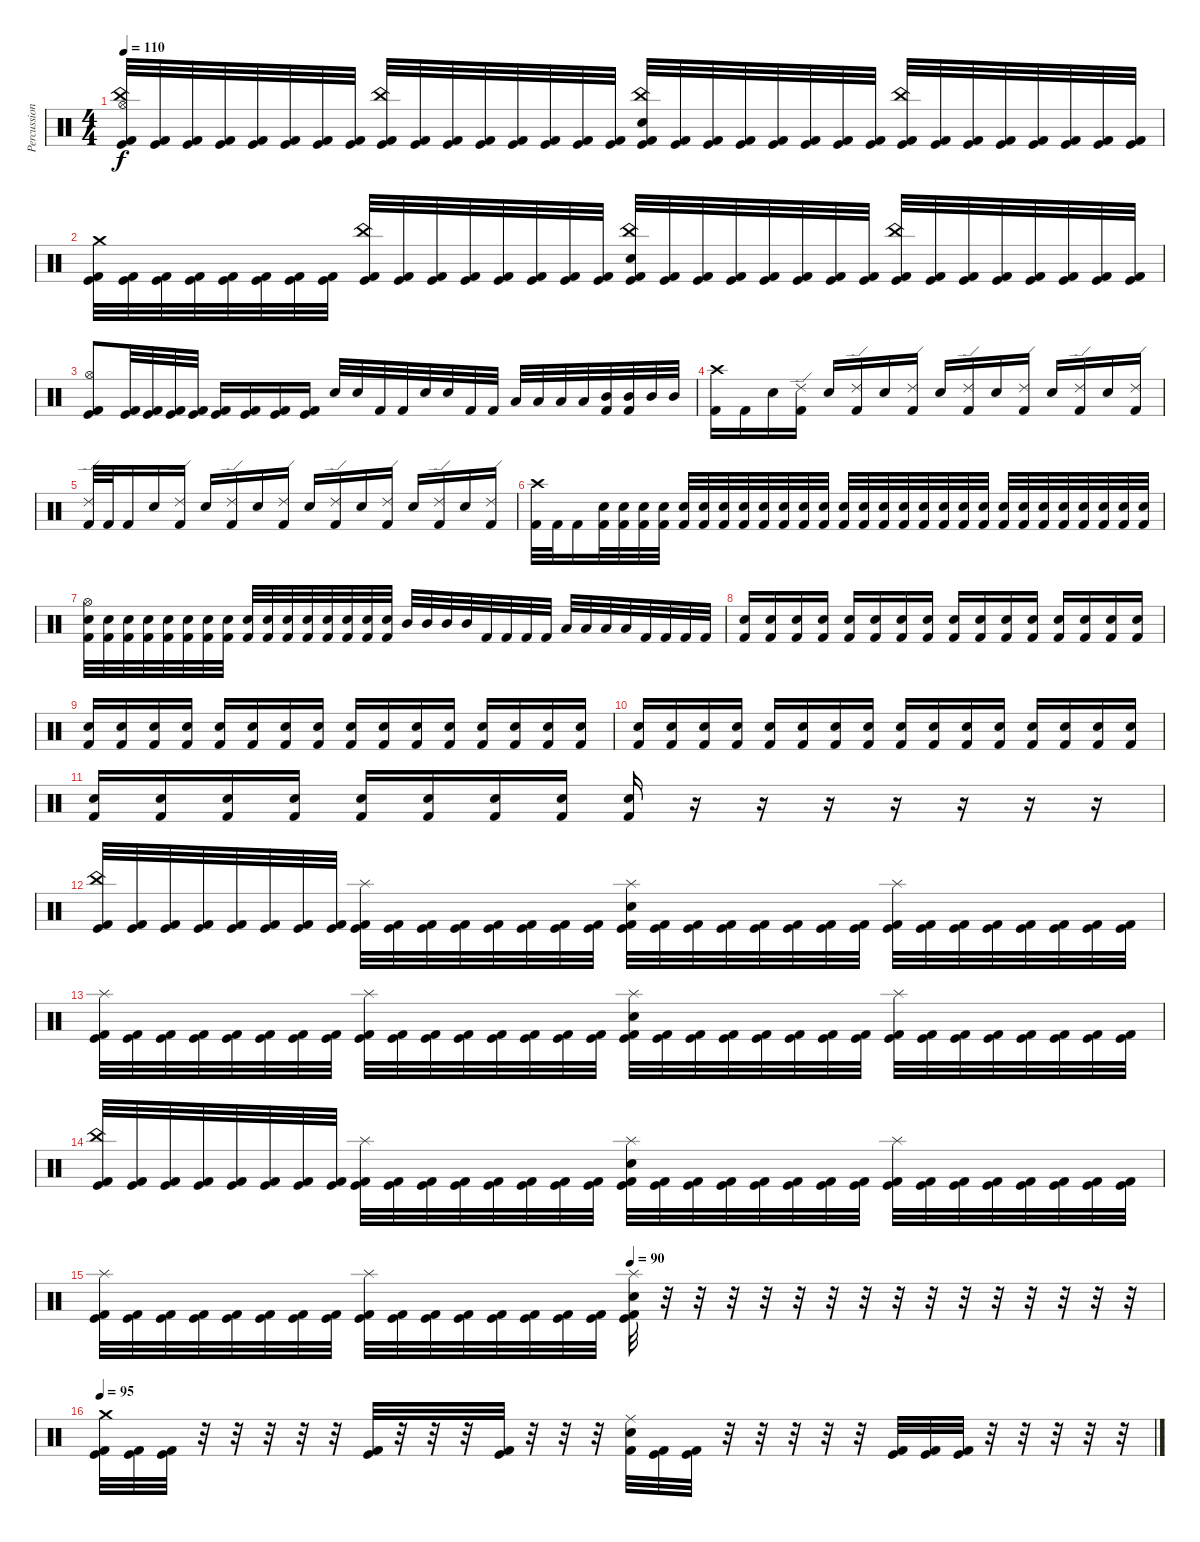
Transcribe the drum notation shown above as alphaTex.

\track ("Percussion" "Percussion") {instrument percussion}
\staff {score}
\articulation defaults
\ts (4 4)
\tempo 110
\clef neutral
\ks c
("Kick (hit)" "Hi-Hat (open)" "China (hit)" "Kick (hit) 2").32{dy f} ("Kick (hit)" "Kick (hit) 2").32 ("Kick (hit)" "Kick (hit) 2").32 ("Kick (hit)" "Kick (hit) 2").32 ("Kick (hit)" "Kick (hit) 2").32 ("Kick (hit)" "Kick (hit) 2").32 ("Kick (hit)" "Kick (hit) 2").32 ("Kick (hit)" "Kick (hit) 2").32 ("Kick (hit)" "China (hit)" "Kick (hit) 2").32 ("Kick (hit)" "Kick (hit) 2").32 ("Kick (hit)" "Kick (hit) 2").32 ("Kick (hit)" "Kick (hit) 2").32 ("Kick (hit)" "Kick (hit) 2").32 ("Kick (hit)" "Kick (hit) 2").32 ("Kick (hit)" "Kick (hit) 2").32 ("Kick (hit)" "Kick (hit) 2").32 ("Kick (hit)" "China (hit)" "Electric Snare (hit)" "Kick (hit) 2").32 ("Kick (hit)" "Kick (hit) 2").32 ("Kick (hit)" "Kick (hit) 2").32 ("Kick (hit)" "Kick (hit) 2").32 ("Kick (hit)" "Kick (hit) 2").32 ("Kick (hit)" "Kick (hit) 2").32 ("Kick (hit)" "Kick (hit) 2").32 ("Kick (hit)" "Kick (hit) 2").32 ("Kick (hit)" "China (hit)" "Kick (hit) 2").32 ("Kick (hit)" "Kick (hit) 2").32 ("Kick (hit)" "Kick (hit) 2").32 ("Kick (hit)" "Kick (hit) 2").32 ("Kick (hit)" "Kick (hit) 2").32 ("Kick (hit)" "Kick (hit) 2").32 ("Kick (hit)" "Kick (hit) 2").32 ("Kick (hit)" "Kick (hit) 2").32 |
("Kick (hit)" "Crash medium (hit)" "Kick (hit) 2").32 ("Kick (hit)" "Kick (hit) 2").32 ("Kick (hit)" "Kick (hit) 2").32 ("Kick (hit)" "Kick (hit) 2").32 ("Kick (hit)" "Kick (hit) 2").32 ("Kick (hit)" "Kick (hit) 2").32 ("Kick (hit)" "Kick (hit) 2").32 ("Kick (hit)" "Kick (hit) 2").32 ("Kick (hit)" "China (hit)" "Kick (hit) 2").32 ("Kick (hit)" "Kick (hit) 2").32 ("Kick (hit)" "Kick (hit) 2").32 ("Kick (hit)" "Kick (hit) 2").32 ("Kick (hit)" "Kick (hit) 2").32 ("Kick (hit)" "Kick (hit) 2").32 ("Kick (hit)" "Kick (hit) 2").32 ("Kick (hit)" "Kick (hit) 2").32 ("Kick (hit)" "China (hit)" "Electric Snare (hit)" "Kick (hit) 2").32 ("Kick (hit)" "Kick (hit) 2").32 ("Kick (hit)" "Kick (hit) 2").32 ("Kick (hit)" "Kick (hit) 2").32 ("Kick (hit)" "Kick (hit) 2").32 ("Kick (hit)" "Kick (hit) 2").32 ("Kick (hit)" "Kick (hit) 2").32 ("Kick (hit)" "Kick (hit) 2").32 ("Kick (hit)" "China (hit)" "Kick (hit) 2").32 ("Kick (hit)" "Kick (hit) 2").32 ("Kick (hit)" "Kick (hit) 2").32 ("Kick (hit)" "Kick (hit) 2").32 ("Kick (hit)" "Kick (hit) 2").32 ("Kick (hit)" "Kick (hit) 2").32 ("Kick (hit)" "Kick (hit) 2").32 ("Kick (hit)" "Kick (hit) 2").32 |
("Kick (hit)" "Hi-Hat (open)" "Kick (hit) 2").8 ("Kick (hit)" "Kick (hit) 2").32 ("Kick (hit)" "Kick (hit) 2").32 ("Kick (hit)" "Kick (hit) 2").32 ("Kick (hit)" "Kick (hit) 2").32 ("Kick (hit)" "Kick (hit) 2").16 ("Kick (hit)" "Kick (hit) 2").16 ("Kick (hit)" "Kick (hit) 2").16 ("Kick (hit)" "Kick (hit) 2").16 "Electric Snare (hit)".32 "Electric Snare (hit)".32 "Kick (hit) 2".32 "Kick (hit) 2".32 "Electric Snare (hit)".32 "Electric Snare (hit)".32 "Kick (hit) 2".32 "Kick (hit) 2".32 "Low Tom (hit)".32 "Low Tom (hit)".32 "Low Tom (hit)".32 "Low Tom (hit)".32 ("Mid Tom (hit)" "Kick (hit) 2").32 ("Mid Tom (hit)" "Kick (hit) 2").32 "Mid Tom (hit)".32 "Mid Tom (hit)".32 |
("Crash high (hit)" "Kick (hit) 2").16 "Kick (hit) 2".16 "Electric Snare (hit)".16 ("Ride (edge) 2" "Kick (hit) 2").16 "Electric Snare (hit)".16 ("Ride (edge) 2" "Kick (hit) 2").16 "Electric Snare (hit)".16 ("Ride (edge) 2" "Kick (hit) 2").16 "Electric Snare (hit)".16 ("Ride (edge) 2" "Kick (hit) 2").16 "Electric Snare (hit)".16 ("Ride (edge) 2" "Kick (hit) 2").16 "Electric Snare (hit)".16 ("Ride (edge) 2" "Kick (hit) 2").16 "Electric Snare (hit)".16 ("Ride (edge) 2" "Kick (hit) 2").16 |
("Ride (edge) 2" "Kick (hit) 2").32 "Kick (hit) 2".32 "Kick (hit) 2".16 "Electric Snare (hit)".16 ("Ride (edge) 2" "Kick (hit) 2").16 "Electric Snare (hit)".16 ("Ride (edge) 2" "Kick (hit) 2").16 "Electric Snare (hit)".16 ("Ride (edge) 2" "Kick (hit) 2").16 "Electric Snare (hit)".16 ("Ride (edge) 2" "Kick (hit) 2").16 "Electric Snare (hit)".16 ("Ride (edge) 2" "Kick (hit) 2").16 "Electric Snare (hit)".16 ("Ride (edge) 2" "Kick (hit) 2").16 "Electric Snare (hit)".16 ("Ride (edge) 2" "Kick (hit) 2").16 |
("Crash high (hit)" "Kick (hit) 2").32 "Kick (hit) 2".32 "Kick (hit) 2".16 ("Electric Snare (hit)" "Kick (hit) 2").32 ("Electric Snare (hit)" "Kick (hit) 2").32 ("Electric Snare (hit)" "Kick (hit) 2").32 ("Electric Snare (hit)" "Kick (hit) 2").32 ("Electric Snare (hit)" "Kick (hit) 2").32 ("Electric Snare (hit)" "Kick (hit) 2").32 ("Electric Snare (hit)" "Kick (hit) 2").32 ("Electric Snare (hit)" "Kick (hit) 2").32 ("Electric Snare (hit)" "Kick (hit) 2").32 ("Electric Snare (hit)" "Kick (hit) 2").32 ("Electric Snare (hit)" "Kick (hit) 2").32 ("Electric Snare (hit)" "Kick (hit) 2").32 ("Electric Snare (hit)" "Kick (hit) 2").32 ("Electric Snare (hit)" "Kick (hit) 2").32 ("Electric Snare (hit)" "Kick (hit) 2").32 ("Electric Snare (hit)" "Kick (hit) 2").32 ("Electric Snare (hit)" "Kick (hit) 2").32 ("Electric Snare (hit)" "Kick (hit) 2").32 ("Electric Snare (hit)" "Kick (hit) 2").32 ("Electric Snare (hit)" "Kick (hit) 2").32 ("Electric Snare (hit)" "Kick (hit) 2").32 ("Electric Snare (hit)" "Kick (hit) 2").32 ("Electric Snare (hit)" "Kick (hit) 2").32 ("Electric Snare (hit)" "Kick (hit) 2").32 ("Electric Snare (hit)" "Kick (hit) 2").32 ("Electric Snare (hit)" "Kick (hit) 2").32 ("Electric Snare (hit)" "Kick (hit) 2").32 ("Electric Snare (hit)" "Kick (hit) 2").32 |
("Hi-Hat (open)" "Electric Snare (hit)" "Kick (hit) 2").32 ("Electric Snare (hit)" "Kick (hit) 2").32 ("Electric Snare (hit)" "Kick (hit) 2").32 ("Electric Snare (hit)" "Kick (hit) 2").32 ("Electric Snare (hit)" "Kick (hit) 2").32 ("Electric Snare (hit)" "Kick (hit) 2").32 ("Electric Snare (hit)" "Kick (hit) 2").32 ("Electric Snare (hit)" "Kick (hit) 2").32 ("Electric Snare (hit)" "Kick (hit) 2").32 ("Electric Snare (hit)" "Kick (hit) 2").32 ("Electric Snare (hit)" "Kick (hit) 2").32 ("Electric Snare (hit)" "Kick (hit) 2").32 ("Electric Snare (hit)" "Kick (hit) 2").32 ("Electric Snare (hit)" "Kick (hit) 2").32 ("Electric Snare (hit)" "Kick (hit) 2").32 ("Electric Snare (hit)" "Kick (hit) 2").32 "Mid Tom (hit)".32 "Mid Tom (hit)".32 "Mid Tom (hit)".32 "Mid Tom (hit)".32 "Kick (hit) 2".32 "Kick (hit) 2".32 "Kick (hit) 2".32 "Kick (hit) 2".32 "Low Tom (hit)".32 "Low Tom (hit)".32 "Low Tom (hit)".32 "Low Tom (hit)".32 "Kick (hit) 2".32 "Kick (hit) 2".32 "Kick (hit) 2".32 "Kick (hit) 2".32 |
("Electric Snare (hit)" "Kick (hit) 2").16 ("Electric Snare (hit)" "Kick (hit) 2").16 ("Electric Snare (hit)" "Kick (hit) 2").16 ("Electric Snare (hit)" "Kick (hit) 2").16 ("Electric Snare (hit)" "Kick (hit) 2").16 ("Electric Snare (hit)" "Kick (hit) 2").16 ("Electric Snare (hit)" "Kick (hit) 2").16 ("Electric Snare (hit)" "Kick (hit) 2").16 ("Electric Snare (hit)" "Kick (hit) 2").16 ("Electric Snare (hit)" "Kick (hit) 2").16 ("Electric Snare (hit)" "Kick (hit) 2").16 ("Electric Snare (hit)" "Kick (hit) 2").16 ("Electric Snare (hit)" "Kick (hit) 2").16 ("Electric Snare (hit)" "Kick (hit) 2").16 ("Electric Snare (hit)" "Kick (hit) 2").16 ("Electric Snare (hit)" "Kick (hit) 2").16 |
("Electric Snare (hit)" "Kick (hit) 2").16 ("Electric Snare (hit)" "Kick (hit) 2").16 ("Electric Snare (hit)" "Kick (hit) 2").16 ("Electric Snare (hit)" "Kick (hit) 2").16 ("Electric Snare (hit)" "Kick (hit) 2").16 ("Electric Snare (hit)" "Kick (hit) 2").16 ("Electric Snare (hit)" "Kick (hit) 2").16 ("Electric Snare (hit)" "Kick (hit) 2").16 ("Electric Snare (hit)" "Kick (hit) 2").16 ("Electric Snare (hit)" "Kick (hit) 2").16 ("Electric Snare (hit)" "Kick (hit) 2").16 ("Electric Snare (hit)" "Kick (hit) 2").16 ("Electric Snare (hit)" "Kick (hit) 2").16 ("Electric Snare (hit)" "Kick (hit) 2").16 ("Electric Snare (hit)" "Kick (hit) 2").16 ("Electric Snare (hit)" "Kick (hit) 2").16 |
("Electric Snare (hit)" "Kick (hit) 2").16 ("Electric Snare (hit)" "Kick (hit) 2").16 ("Electric Snare (hit)" "Kick (hit) 2").16 ("Electric Snare (hit)" "Kick (hit) 2").16 ("Electric Snare (hit)" "Kick (hit) 2").16 ("Electric Snare (hit)" "Kick (hit) 2").16 ("Electric Snare (hit)" "Kick (hit) 2").16 ("Electric Snare (hit)" "Kick (hit) 2").16 ("Electric Snare (hit)" "Kick (hit) 2").16 ("Electric Snare (hit)" "Kick (hit) 2").16 ("Electric Snare (hit)" "Kick (hit) 2").16 ("Electric Snare (hit)" "Kick (hit) 2").16 ("Electric Snare (hit)" "Kick (hit) 2").16 ("Electric Snare (hit)" "Kick (hit) 2").16 ("Electric Snare (hit)" "Kick (hit) 2").16 ("Electric Snare (hit)" "Kick (hit) 2").16 |
("Electric Snare (hit)" "Kick (hit) 2").16 ("Electric Snare (hit)" "Kick (hit) 2").16 ("Electric Snare (hit)" "Kick (hit) 2").16 ("Electric Snare (hit)" "Kick (hit) 2").16 ("Electric Snare (hit)" "Kick (hit) 2").16 ("Electric Snare (hit)" "Kick (hit) 2").16 ("Electric Snare (hit)" "Kick (hit) 2").16 ("Electric Snare (hit)" "Kick (hit) 2").16 ("Electric Snare (hit)" "Kick (hit) 2").16 r.16 r.16 r.16 r.16 r.16 r.16 r.16 |
("China (hit)" "Kick (hit)" "Kick (hit) 2").32 ("Kick (hit)" "Kick (hit) 2").32 ("Kick (hit)" "Kick (hit) 2").32 ("Kick (hit)" "Kick (hit) 2").32 ("Kick (hit)" "Kick (hit) 2").32 ("Kick (hit)" "Kick (hit) 2").32 ("Kick (hit)" "Kick (hit) 2").32 ("Kick (hit)" "Kick (hit) 2").32 ("Splash (hit)" "Kick (hit)" "Kick (hit) 2").32 ("Kick (hit)" "Kick (hit) 2").32 ("Kick (hit)" "Kick (hit) 2").32 ("Kick (hit)" "Kick (hit) 2").32 ("Kick (hit)" "Kick (hit) 2").32 ("Kick (hit)" "Kick (hit) 2").32 ("Kick (hit)" "Kick (hit) 2").32 ("Kick (hit)" "Kick (hit) 2").32 ("Splash (hit)" "Electric Snare (hit)" "Kick (hit)" "Kick (hit) 2").32 ("Kick (hit)" "Kick (hit) 2").32 ("Kick (hit)" "Kick (hit) 2").32 ("Kick (hit)" "Kick (hit) 2").32 ("Kick (hit)" "Kick (hit) 2").32 ("Kick (hit)" "Kick (hit) 2").32 ("Kick (hit)" "Kick (hit) 2").32 ("Kick (hit)" "Kick (hit) 2").32 ("Splash (hit)" "Kick (hit)" "Kick (hit) 2").32 ("Kick (hit)" "Kick (hit) 2").32 ("Kick (hit)" "Kick (hit) 2").32 ("Kick (hit)" "Kick (hit) 2").32 ("Kick (hit)" "Kick (hit) 2").32 ("Kick (hit)" "Kick (hit) 2").32 ("Kick (hit)" "Kick (hit) 2").32 ("Kick (hit)" "Kick (hit) 2").32 |
("Splash (hit)" "Kick (hit)" "Kick (hit) 2").32 ("Kick (hit)" "Kick (hit) 2").32 ("Kick (hit)" "Kick (hit) 2").32 ("Kick (hit)" "Kick (hit) 2").32 ("Kick (hit)" "Kick (hit) 2").32 ("Kick (hit)" "Kick (hit) 2").32 ("Kick (hit)" "Kick (hit) 2").32 ("Kick (hit)" "Kick (hit) 2").32 ("Splash (hit)" "Kick (hit)" "Kick (hit) 2").32 ("Kick (hit)" "Kick (hit) 2").32 ("Kick (hit)" "Kick (hit) 2").32 ("Kick (hit)" "Kick (hit) 2").32 ("Kick (hit)" "Kick (hit) 2").32 ("Kick (hit)" "Kick (hit) 2").32 ("Kick (hit)" "Kick (hit) 2").32 ("Kick (hit)" "Kick (hit) 2").32 ("Splash (hit)" "Electric Snare (hit)" "Kick (hit)" "Kick (hit) 2").32 ("Kick (hit)" "Kick (hit) 2").32 ("Kick (hit)" "Kick (hit) 2").32 ("Kick (hit)" "Kick (hit) 2").32 ("Kick (hit)" "Kick (hit) 2").32 ("Kick (hit)" "Kick (hit) 2").32 ("Kick (hit)" "Kick (hit) 2").32 ("Kick (hit)" "Kick (hit) 2").32 ("Splash (hit)" "Kick (hit)" "Kick (hit) 2").32 ("Kick (hit)" "Kick (hit) 2").32 ("Kick (hit)" "Kick (hit) 2").32 ("Kick (hit)" "Kick (hit) 2").32 ("Kick (hit)" "Kick (hit) 2").32 ("Kick (hit)" "Kick (hit) 2").32 ("Kick (hit)" "Kick (hit) 2").32 ("Kick (hit)" "Kick (hit) 2").32 |
("China (hit)" "Kick (hit)" "Kick (hit) 2").32 ("Kick (hit)" "Kick (hit) 2").32 ("Kick (hit)" "Kick (hit) 2").32 ("Kick (hit)" "Kick (hit) 2").32 ("Kick (hit)" "Kick (hit) 2").32 ("Kick (hit)" "Kick (hit) 2").32 ("Kick (hit)" "Kick (hit) 2").32 ("Kick (hit)" "Kick (hit) 2").32 ("Splash (hit)" "Kick (hit)" "Kick (hit) 2").32 ("Kick (hit)" "Kick (hit) 2").32 ("Kick (hit)" "Kick (hit) 2").32 ("Kick (hit)" "Kick (hit) 2").32 ("Kick (hit)" "Kick (hit) 2").32 ("Kick (hit)" "Kick (hit) 2").32 ("Kick (hit)" "Kick (hit) 2").32 ("Kick (hit)" "Kick (hit) 2").32 ("Splash (hit)" "Electric Snare (hit)" "Kick (hit)" "Kick (hit) 2").32 ("Kick (hit)" "Kick (hit) 2").32 ("Kick (hit)" "Kick (hit) 2").32 ("Kick (hit)" "Kick (hit) 2").32 ("Kick (hit)" "Kick (hit) 2").32 ("Kick (hit)" "Kick (hit) 2").32 ("Kick (hit)" "Kick (hit) 2").32 ("Kick (hit)" "Kick (hit) 2").32 ("Splash (hit)" "Kick (hit)" "Kick (hit) 2").32 ("Kick (hit)" "Kick (hit) 2").32 ("Kick (hit)" "Kick (hit) 2").32 ("Kick (hit)" "Kick (hit) 2").32 ("Kick (hit)" "Kick (hit) 2").32 ("Kick (hit)" "Kick (hit) 2").32 ("Kick (hit)" "Kick (hit) 2").32 ("Kick (hit)" "Kick (hit) 2").32 |
\tempo (90 0.5)
("Splash (hit)" "Kick (hit)" "Kick (hit) 2").32 ("Kick (hit)" "Kick (hit) 2").32 ("Kick (hit)" "Kick (hit) 2").32 ("Kick (hit)" "Kick (hit) 2").32 ("Kick (hit)" "Kick (hit) 2").32 ("Kick (hit)" "Kick (hit) 2").32 ("Kick (hit)" "Kick (hit) 2").32 ("Kick (hit)" "Kick (hit) 2").32 ("Splash (hit)" "Kick (hit)" "Kick (hit) 2").32 ("Kick (hit)" "Kick (hit) 2").32 ("Kick (hit)" "Kick (hit) 2").32 ("Kick (hit)" "Kick (hit) 2").32 ("Kick (hit)" "Kick (hit) 2").32 ("Kick (hit)" "Kick (hit) 2").32 ("Kick (hit)" "Kick (hit) 2").32 ("Kick (hit)" "Kick (hit) 2").32 ("Splash (hit)" "Electric Snare (hit)" "Kick (hit)" "Kick (hit) 2").32 r.32 r.32 r.32 r.32 r.32 r.32 r.32 r.32 r.32 r.32 r.32 r.32 r.32 r.32 r.32 |
\tempo 95
("Crash medium (hit)" "Kick (hit)" "Kick (hit) 2").32 ("Kick (hit)" "Kick (hit) 2").32 ("Kick (hit)" "Kick (hit) 2").32 r.32 r.32 r.32 r.32 r.32 ("Kick (hit)" "Kick (hit) 2").32 r.32 r.32 r.32 ("Kick (hit)" "Kick (hit) 2").32 r.32 r.32 r.32 ("Ride (middle)" "Electric Snare (hit)" "Kick (hit) 2").32 ("Kick (hit)" "Kick (hit) 2").32 ("Kick (hit)" "Kick (hit) 2").32 r.32 r.32 r.32 r.32 r.32 ("Kick (hit)" "Kick (hit) 2").32 ("Kick (hit)" "Kick (hit) 2").32 ("Kick (hit)" "Kick (hit) 2").32 r.32 r.32 r.32 r.32 r.32
